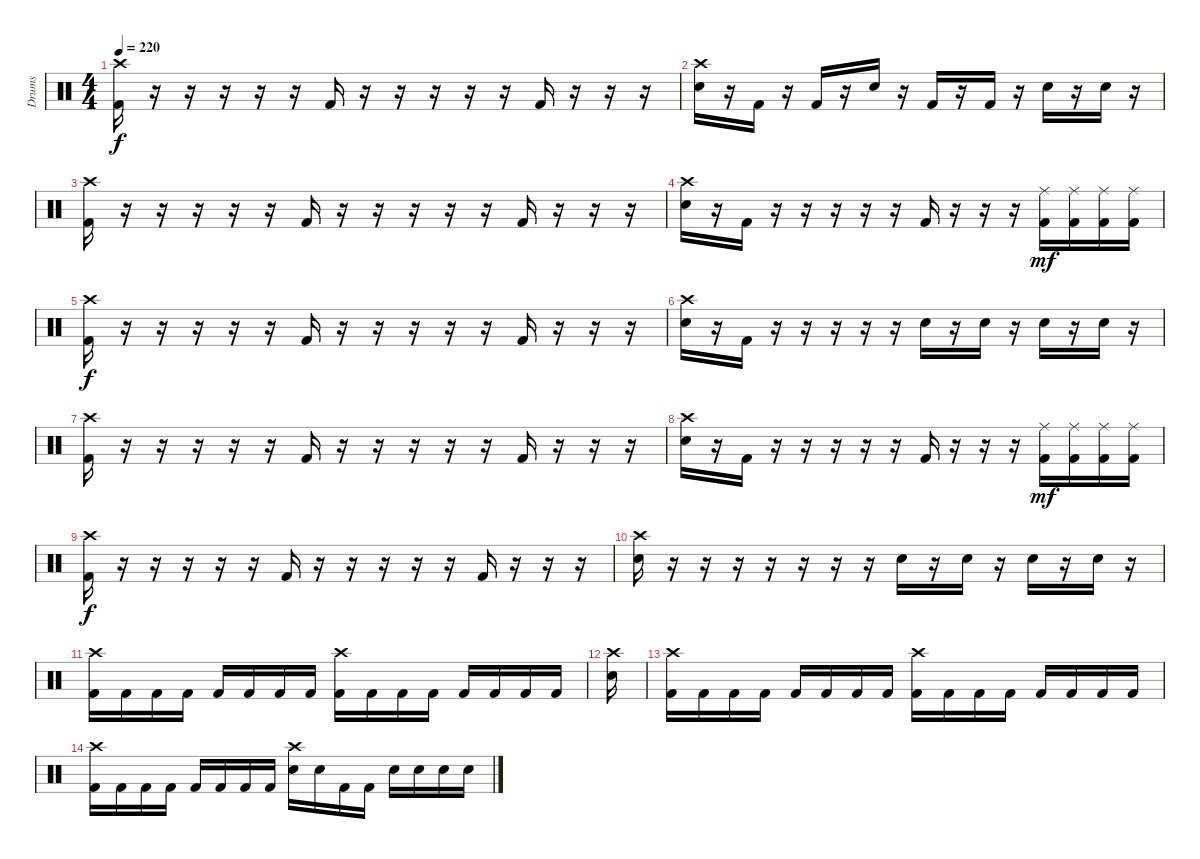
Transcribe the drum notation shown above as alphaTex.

\track ("Drums" "Drums") {instrument percussion}
\staff {score}
\articulation defaults
\ts (4 4)
\tempo 220
\clef neutral
\ks c
("Kick (hit) 2" "Crash high (hit)").16{dy f} r.16 r.16 r.16 r.16 r.16 "Kick (hit) 2".16 r.16 r.16 r.16 r.16 r.16 "Kick (hit) 2".16 r.16 r.16 r.16 |
("Electric Snare (hit)" "Crash high (hit)").16 r.16 "Kick (hit) 2".16 r.16 "Kick (hit) 2".16 r.16 "Electric Snare (hit)".16 r.16 "Kick (hit) 2".16 r.16 "Kick (hit) 2".16 r.16 "Electric Snare (hit)".16 r.16 "Electric Snare (hit)".16 r.16 |
("Kick (hit) 2" "Crash high (hit)").16 r.16 r.16 r.16 r.16 r.16 "Kick (hit) 2".16 r.16 r.16 r.16 r.16 r.16 "Kick (hit) 2".16 r.16 r.16 r.16 |
("Electric Snare (hit)" "Crash high (hit)").16 r.16 "Kick (hit) 2".16 r.16 r.16 r.16 r.16 r.16 "Kick (hit) 2".16 r.16 r.16 r.16 ("Kick (hit) 2" "Ride (middle)").16{dy mf} ("Kick (hit) 2" "Ride (middle)").16 ("Kick (hit) 2" "Ride (middle)").16 ("Kick (hit) 2" "Ride (middle)").16 |
("Kick (hit) 2" "Crash high (hit)").16{dy f} r.16 r.16 r.16 r.16 r.16 "Kick (hit) 2".16 r.16 r.16 r.16 r.16 r.16 "Kick (hit) 2".16 r.16 r.16 r.16 |
("Electric Snare (hit)" "Crash high (hit)").16 r.16 "Kick (hit) 2".16 r.16 r.16 r.16 r.16 r.16 "Electric Snare (hit)".16 r.16 "Electric Snare (hit)".16 r.16 "Electric Snare (hit)".16 r.16 "Electric Snare (hit)".16 r.16 |
("Kick (hit) 2" "Crash high (hit)").16 r.16 r.16 r.16 r.16 r.16 "Kick (hit) 2".16 r.16 r.16 r.16 r.16 r.16 "Kick (hit) 2".16 r.16 r.16 r.16 |
("Electric Snare (hit)" "Crash high (hit)").16 r.16 "Kick (hit) 2".16 r.16 r.16 r.16 r.16 r.16 "Kick (hit) 2".16 r.16 r.16 r.16 ("Kick (hit) 2" "Ride (middle)").16{dy mf} ("Kick (hit) 2" "Ride (middle)").16 ("Kick (hit) 2" "Ride (middle)").16 ("Kick (hit) 2" "Ride (middle)").16 |
("Kick (hit) 2" "Crash high (hit)").16{dy f} r.16 r.16 r.16 r.16 r.16 "Kick (hit) 2".16 r.16 r.16 r.16 r.16 r.16 "Kick (hit) 2".16 r.16 r.16 r.16 |
("Electric Snare (hit)" "Crash high (hit)").16 r.16 r.16 r.16 r.16 r.16 r.16 r.16 "Electric Snare (hit)".16 r.16 "Electric Snare (hit)".16 r.16 "Electric Snare (hit)".16 r.16 "Electric Snare (hit)".16 r.16 |
("Kick (hit) 2" "Crash high (hit)").16 "Kick (hit) 2".16 "Kick (hit) 2".16 "Kick (hit) 2".16 "Kick (hit) 2".16 "Kick (hit) 2".16 "Kick (hit) 2".16 "Kick (hit) 2".16 ("Kick (hit) 2" "Crash high (hit)").16 "Kick (hit) 2".16 "Kick (hit) 2".16 "Kick (hit) 2".16 "Kick (hit) 2".16 "Kick (hit) 2".16 "Kick (hit) 2".16 "Kick (hit) 2".16 |
("Electric Snare (hit)" "Crash high (hit)").16 |
("Kick (hit) 2" "Crash high (hit)").16 "Kick (hit) 2".16 "Kick (hit) 2".16 "Kick (hit) 2".16 "Kick (hit) 2".16 "Kick (hit) 2".16 "Kick (hit) 2".16 "Kick (hit) 2".16 ("Kick (hit) 2" "Crash high (hit)").16 "Kick (hit) 2".16 "Kick (hit) 2".16 "Kick (hit) 2".16 "Kick (hit) 2".16 "Kick (hit) 2".16 "Kick (hit) 2".16 "Kick (hit) 2".16 |
("Kick (hit) 2" "Crash high (hit)").16 "Kick (hit) 2".16 "Kick (hit) 2".16 "Kick (hit) 2".16 "Kick (hit) 2".16 "Kick (hit) 2".16 "Kick (hit) 2".16 "Kick (hit) 2".16 ("Electric Snare (hit)" "Crash high (hit)").16 "Electric Snare (hit)".16 "Kick (hit) 2".16 "Kick (hit) 2".16 "Electric Snare (hit)".16 "Electric Snare (hit)".16 "Electric Snare (hit)".16 "Electric Snare (hit)".16
